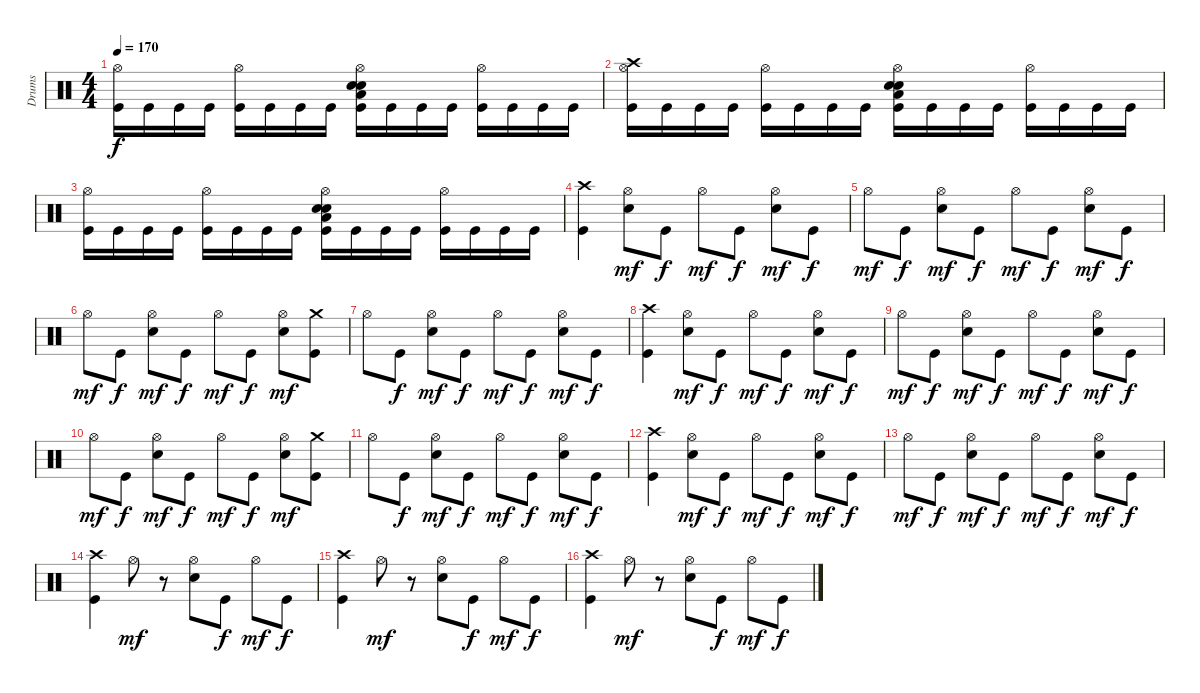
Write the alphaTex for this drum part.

\track ("Drums" "Drums") {instrument percussion}
\staff {score}
\articulation defaults
\ts (4 4)
\tempo 170
\clef neutral
\ks c
("Hi-Hat (open)" "Kick (hit)").16{dy f} "Kick (hit)".16 "Kick (hit)".16 "Kick (hit)".16 ("Hi-Hat (open)" "Kick (hit)").16 "Kick (hit)".16 "Kick (hit)".16 "Kick (hit)".16 ("Low Floor Tom (hit)" "Hi-Hat (open)" "Electric Snare (hit)" "Electric Snare (hit)" "Kick (hit)").16 "Kick (hit)".16 "Kick (hit)".16 "Kick (hit)".16 ("Hi-Hat (open)" "Kick (hit)").16 "Kick (hit)".16 "Kick (hit)".16 "Kick (hit)".16 |
("Crash high (hit)" "Hi-Hat (open)" "Kick (hit)").16 "Kick (hit)".16 "Kick (hit)".16 "Kick (hit)".16 ("Hi-Hat (open)" "Kick (hit)").16 "Kick (hit)".16 "Kick (hit)".16 "Kick (hit)".16 ("Low Floor Tom (hit)" "Hi-Hat (open)" "Electric Snare (hit)" "Electric Snare (hit)" "Kick (hit)").16 "Kick (hit)".16 "Kick (hit)".16 "Kick (hit)".16 ("Hi-Hat (open)" "Kick (hit)").16 "Kick (hit)".16 "Kick (hit)".16 "Kick (hit)".16 |
("Hi-Hat (open)" "Kick (hit)").16 "Kick (hit)".16 "Kick (hit)".16 "Kick (hit)".16 ("Hi-Hat (open)" "Kick (hit)").16 "Kick (hit)".16 "Kick (hit)".16 "Kick (hit)".16 ("Low Floor Tom (hit)" "Hi-Hat (open)" "Electric Snare (hit)" "Electric Snare (hit)" "Kick (hit)").16 "Kick (hit)".16 "Kick (hit)".16 "Kick (hit)".16 ("Hi-Hat (open)" "Kick (hit)").16 "Kick (hit)".16 "Kick (hit)".16 "Kick (hit)".16 |
("Kick (hit)" "Crash high (hit)").4 ("Electric Snare (hit)" "Hi-Hat (open)").8{dy mf} "Kick (hit)".8{dy f} "Hi-Hat (open)".8{dy mf} "Kick (hit)".8{dy f} ("Electric Snare (hit)" "Hi-Hat (open)").8{dy mf} "Kick (hit)".8{dy f} |
"Hi-Hat (open)".8{dy mf} "Kick (hit)".8{dy f} ("Electric Snare (hit)" "Hi-Hat (open)").8{dy mf} "Kick (hit)".8{dy f} "Hi-Hat (open)".8{dy mf} "Kick (hit)".8{dy f} ("Electric Snare (hit)" "Hi-Hat (open)").8{dy mf} "Kick (hit)".8{dy f} |
"Hi-Hat (open)".8{dy mf} "Kick (hit)".8{dy f} ("Electric Snare (hit)" "Hi-Hat (open)").8{dy mf} "Kick (hit)".8{dy f} "Hi-Hat (open)".8{dy mf} "Kick (hit)".8{dy f} ("Electric Snare (hit)" "Hi-Hat (open)").8{dy mf} ("Kick (hit)" "Crash medium (hit)").8 |
"Hi-Hat (open)".8 "Kick (hit)".8{dy f} ("Electric Snare (hit)" "Hi-Hat (open)").8{dy mf} "Kick (hit)".8{dy f} "Hi-Hat (open)".8{dy mf} "Kick (hit)".8{dy f} ("Electric Snare (hit)" "Hi-Hat (open)").8{dy mf} "Kick (hit)".8{dy f} |
("Kick (hit)" "Crash high (hit)").4 ("Electric Snare (hit)" "Hi-Hat (open)").8{dy mf} "Kick (hit)".8{dy f} "Hi-Hat (open)".8{dy mf} "Kick (hit)".8{dy f} ("Electric Snare (hit)" "Hi-Hat (open)").8{dy mf} "Kick (hit)".8{dy f} |
"Hi-Hat (open)".8{dy mf} "Kick (hit)".8{dy f} ("Electric Snare (hit)" "Hi-Hat (open)").8{dy mf} "Kick (hit)".8{dy f} "Hi-Hat (open)".8{dy mf} "Kick (hit)".8{dy f} ("Electric Snare (hit)" "Hi-Hat (open)").8{dy mf} "Kick (hit)".8{dy f} |
"Hi-Hat (open)".8{dy mf} "Kick (hit)".8{dy f} ("Electric Snare (hit)" "Hi-Hat (open)").8{dy mf} "Kick (hit)".8{dy f} "Hi-Hat (open)".8{dy mf} "Kick (hit)".8{dy f} ("Electric Snare (hit)" "Hi-Hat (open)").8{dy mf} ("Kick (hit)" "Crash medium (hit)").8 |
"Hi-Hat (open)".8 "Kick (hit)".8{dy f} ("Electric Snare (hit)" "Hi-Hat (open)").8{dy mf} "Kick (hit)".8{dy f} "Hi-Hat (open)".8{dy mf} "Kick (hit)".8{dy f} ("Electric Snare (hit)" "Hi-Hat (open)").8{dy mf} "Kick (hit)".8{dy f} |
("Kick (hit)" "Crash high (hit)").4 ("Electric Snare (hit)" "Hi-Hat (open)").8{dy mf} "Kick (hit)".8{dy f} "Hi-Hat (open)".8{dy mf} "Kick (hit)".8{dy f} ("Electric Snare (hit)" "Hi-Hat (open)").8{dy mf} "Kick (hit)".8{dy f} |
"Hi-Hat (open)".8{dy mf} "Kick (hit)".8{dy f} ("Electric Snare (hit)" "Hi-Hat (open)").8{dy mf} "Kick (hit)".8{dy f} "Hi-Hat (open)".8{dy mf} "Kick (hit)".8{dy f} ("Electric Snare (hit)" "Hi-Hat (open)").8{dy mf} "Kick (hit)".8{dy f} |
("Kick (hit)" "Crash high (hit)").4 "Hi-Hat (open)".8{dy mf} r.8 ("Electric Snare (hit)" "Hi-Hat (open)").8 "Kick (hit)".8{dy f} "Hi-Hat (open)".8{dy mf} "Kick (hit)".8{dy f} |
("Kick (hit)" "Crash high (hit)").4 "Hi-Hat (open)".8{dy mf} r.8 ("Electric Snare (hit)" "Hi-Hat (open)").8 "Kick (hit)".8{dy f} "Hi-Hat (open)".8{dy mf} "Kick (hit)".8{dy f} |
("Kick (hit)" "Crash high (hit)").4 "Hi-Hat (open)".8{dy mf} r.8 ("Electric Snare (hit)" "Hi-Hat (open)").8 "Kick (hit)".8{dy f} "Hi-Hat (open)".8{dy mf} "Kick (hit)".8{dy f}
